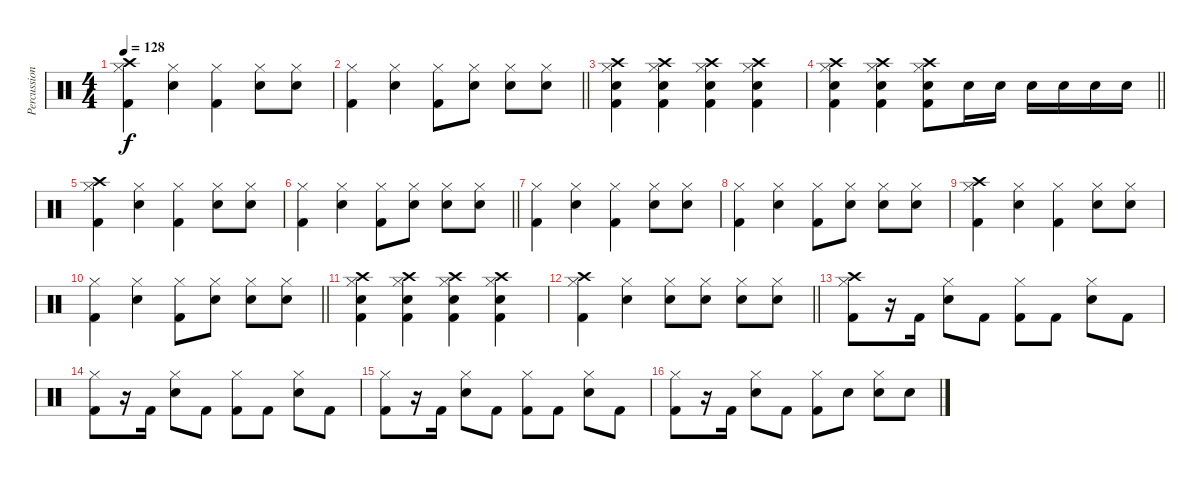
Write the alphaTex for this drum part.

\track ("Percussion" "Percussion") {instrument percussion}
\staff {score}
\articulation defaults
\ts (4 4)
\tempo 128
\clef neutral
\ks c
("Crash high (hit)" "Hi-Hat (closed)" "Kick (hit) 2").4{dy f} ("Hi-Hat (closed)" "Snare (hit) 2").4 ("Hi-Hat (closed)" "Kick (hit) 2").4 ("Hi-Hat (closed)" "Snare (hit) 2").8 ("Hi-Hat (closed)" "Snare (hit) 2").8 |
\barLineRight lightlight
("Hi-Hat (closed)" "Kick (hit) 2").4 ("Hi-Hat (closed)" "Snare (hit) 2").4 ("Hi-Hat (closed)" "Kick (hit) 2").8 ("Hi-Hat (closed)" "Snare (hit) 2").8 ("Hi-Hat (closed)" "Snare (hit) 2").8 ("Hi-Hat (closed)" "Snare (hit) 2").8 |
("Crash high (hit)" "Hi-Hat (closed)" "Kick (hit) 2" "Snare (hit) 2").4 ("Crash high (hit)" "Hi-Hat (closed)" "Kick (hit) 2" "Snare (hit) 2").4 ("Crash high (hit)" "Hi-Hat (closed)" "Kick (hit) 2" "Snare (hit) 2").4 ("Crash high (hit)" "Hi-Hat (closed)" "Kick (hit) 2" "Snare (hit) 2").4 |
\barLineRight lightlight
("Crash high (hit)" "Hi-Hat (closed)" "Kick (hit) 2" "Snare (hit) 2").4 ("Crash high (hit)" "Hi-Hat (closed)" "Kick (hit) 2" "Snare (hit) 2").4 ("Crash high (hit)" "Hi-Hat (closed)" "Kick (hit) 2" "Snare (hit) 2").8 "Snare (hit) 2".16 "Snare (hit) 2".16 "Snare (hit) 2".16 "Snare (hit) 2".16 "Snare (hit) 2".16 "Snare (hit) 2".16 |
("Crash high (hit)" "Hi-Hat (closed)" "Kick (hit) 2").4 ("Hi-Hat (closed)" "Snare (hit) 2").4 ("Hi-Hat (closed)" "Kick (hit) 2").4 ("Hi-Hat (closed)" "Snare (hit) 2").8 ("Hi-Hat (closed)" "Snare (hit) 2").8 |
\barLineRight lightlight
("Hi-Hat (closed)" "Kick (hit) 2").4 ("Hi-Hat (closed)" "Snare (hit) 2").4 ("Hi-Hat (closed)" "Kick (hit) 2").8 ("Hi-Hat (closed)" "Snare (hit) 2").8 ("Hi-Hat (closed)" "Snare (hit) 2").8 ("Hi-Hat (closed)" "Snare (hit) 2").8 |
("Hi-Hat (closed)" "Kick (hit) 2").4 ("Hi-Hat (closed)" "Snare (hit) 2").4 ("Hi-Hat (closed)" "Kick (hit) 2").4 ("Hi-Hat (closed)" "Snare (hit) 2").8 ("Hi-Hat (closed)" "Snare (hit) 2").8 |
("Hi-Hat (closed)" "Kick (hit) 2").4 ("Hi-Hat (closed)" "Snare (hit) 2").4 ("Hi-Hat (closed)" "Kick (hit) 2").8 ("Hi-Hat (closed)" "Snare (hit) 2").8 ("Hi-Hat (closed)" "Snare (hit) 2").8 ("Hi-Hat (closed)" "Snare (hit) 2").8 |
("Crash high (hit)" "Hi-Hat (closed)" "Kick (hit) 2").4 ("Hi-Hat (closed)" "Snare (hit) 2").4 ("Hi-Hat (closed)" "Kick (hit) 2").4 ("Hi-Hat (closed)" "Snare (hit) 2").8 ("Hi-Hat (closed)" "Snare (hit) 2").8 |
\barLineRight lightlight
("Hi-Hat (closed)" "Kick (hit) 2").4 ("Hi-Hat (closed)" "Snare (hit) 2").4 ("Hi-Hat (closed)" "Kick (hit) 2").8 ("Hi-Hat (closed)" "Snare (hit) 2").8 ("Hi-Hat (closed)" "Snare (hit) 2").8 ("Hi-Hat (closed)" "Snare (hit) 2").8 |
("Crash high (hit)" "Hi-Hat (closed)" "Kick (hit) 2" "Snare (hit) 2").4 ("Crash high (hit)" "Hi-Hat (closed)" "Kick (hit) 2" "Snare (hit) 2").4 ("Crash high (hit)" "Hi-Hat (closed)" "Kick (hit) 2" "Snare (hit) 2").4 ("Crash high (hit)" "Hi-Hat (closed)" "Kick (hit) 2" "Snare (hit) 2").4 |
\barLineRight lightlight
("Crash high (hit)" "Hi-Hat (closed)" "Kick (hit) 2").4 ("Hi-Hat (closed)" "Snare (hit) 2").4 ("Hi-Hat (closed)" "Snare (hit) 2").8 ("Hi-Hat (closed)" "Snare (hit) 2").8 ("Hi-Hat (closed)" "Snare (hit) 2").8 ("Hi-Hat (closed)" "Snare (hit) 2").8 |
("Crash high (hit)" "Hi-Hat (closed)" "Kick (hit) 2").8 r.16 "Kick (hit) 2".16 ("Hi-Hat (closed)" "Snare (hit) 2").8 "Kick (hit) 2".8 ("Hi-Hat (closed)" "Kick (hit) 2").8 "Kick (hit) 2".8 ("Hi-Hat (closed)" "Snare (hit) 2").8 "Kick (hit) 2".8 |
("Hi-Hat (closed)" "Kick (hit) 2").8 r.16 "Kick (hit) 2".16 ("Hi-Hat (closed)" "Snare (hit) 2").8 "Kick (hit) 2".8 ("Hi-Hat (closed)" "Kick (hit) 2").8 "Kick (hit) 2".8 ("Hi-Hat (closed)" "Snare (hit) 2").8 "Kick (hit) 2".8 |
("Hi-Hat (closed)" "Kick (hit) 2").8 r.16 "Kick (hit) 2".16 ("Hi-Hat (closed)" "Snare (hit) 2").8 "Kick (hit) 2".8 ("Hi-Hat (closed)" "Kick (hit) 2").8 "Kick (hit) 2".8 ("Hi-Hat (closed)" "Snare (hit) 2").8 "Kick (hit) 2".8 |
("Hi-Hat (closed)" "Kick (hit) 2").8 r.16 "Kick (hit) 2".16 ("Hi-Hat (closed)" "Snare (hit) 2").8 "Kick (hit) 2".8 ("Hi-Hat (closed)" "Kick (hit) 2").8 "Snare (hit) 2".8 ("Hi-Hat (closed)" "Snare (hit) 2").8 "Snare (hit) 2".8
